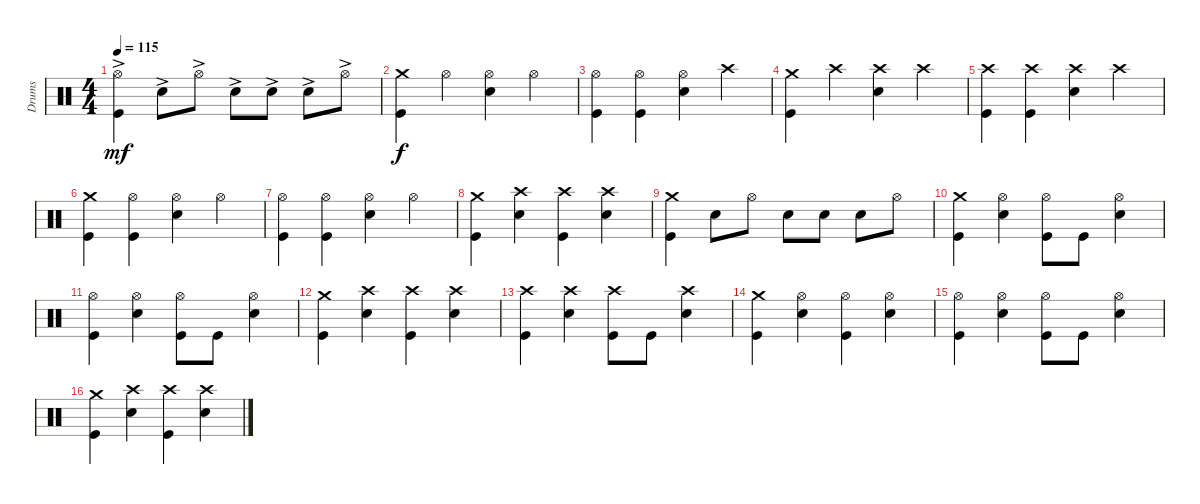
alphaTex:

\track ("Drums" "Drums") {instrument percussion}
\staff {score}
\articulation defaults
\ts (4 4)
\tempo 115
\clef neutral
\ks c
("Hi-Hat (open)"{ac} "Kick (hit)"{ac}).4{dy mf} "Snare (hit) 2"{ac}.8 "Hi-Hat (open)"{ac}.8 "Snare (hit) 2"{ac}.8 "Snare (hit) 2"{ac}.8 "Snare (hit) 2"{ac}.8 "Hi-Hat (open)"{ac}.8 |
("Crash medium (hit)" "Kick (hit)").4{dy f} "Hi-Hat (open)".4 ("Hi-Hat (open)" "Snare (hit) 2").4 "Hi-Hat (open)".4 |
("Hi-Hat (open)" "Kick (hit)").4 ("Hi-Hat (open)" "Kick (hit)").4 ("Hi-Hat (open)" "Snare (hit) 2").4 "Crash high (hit)".4 |
("Crash medium (hit)" "Kick (hit)").4 "Crash high (hit)".4 ("Crash high (hit)" "Snare (hit) 2").4 "Crash high (hit)".4 |
("Crash high (hit)" "Kick (hit)").4 ("Crash high (hit)" "Kick (hit)").4 ("Crash high (hit)" "Snare (hit) 2").4 "Crash high (hit)".4 |
("Crash medium (hit)" "Kick (hit)").4 ("Hi-Hat (open)" "Kick (hit)").4 ("Hi-Hat (open)" "Snare (hit) 2").4 "Hi-Hat (open)".4 |
("Hi-Hat (open)" "Kick (hit)").4 ("Hi-Hat (open)" "Kick (hit)").4 ("Hi-Hat (open)" "Snare (hit) 2").4 "Hi-Hat (open)".4 |
("Crash medium (hit)" "Kick (hit)").4 ("Crash high (hit)" "Snare (hit) 2").4 ("Crash high (hit)" "Kick (hit)").4 ("Crash high (hit)" "Snare (hit) 2").4 |
("Crash medium (hit)" "Kick (hit)").4 "Snare (hit) 2".8 "Hi-Hat (open)".8 "Snare (hit) 2".8 "Snare (hit) 2".8 "Snare (hit) 2".8 "Hi-Hat (open)".8 |
("Crash medium (hit)" "Kick (hit)").4 ("Hi-Hat (open)" "Snare (hit) 2").4 ("Hi-Hat (open)" "Kick (hit)").8 "Kick (hit)".8 ("Hi-Hat (open)" "Snare (hit) 2").4 |
("Hi-Hat (open)" "Kick (hit)").4 ("Hi-Hat (open)" "Snare (hit) 2").4 ("Hi-Hat (open)" "Kick (hit)").8 "Kick (hit)".8 ("Hi-Hat (open)" "Snare (hit) 2").4 |
("Crash medium (hit)" "Kick (hit)").4 ("Crash high (hit)" "Snare (hit) 2").4 ("Crash high (hit)" "Kick (hit)").4 ("Crash high (hit)" "Snare (hit) 2").4 |
("Crash high (hit)" "Kick (hit)").4 ("Crash high (hit)" "Snare (hit) 2").4 ("Crash high (hit)" "Kick (hit)").8 "Kick (hit)".8 ("Crash high (hit)" "Snare (hit) 2").4 |
("Crash medium (hit)" "Kick (hit)").4 ("Hi-Hat (open)" "Snare (hit) 2").4 ("Hi-Hat (open)" "Kick (hit)").4 ("Hi-Hat (open)" "Snare (hit) 2").4 |
("Hi-Hat (open)" "Kick (hit)").4 ("Hi-Hat (open)" "Snare (hit) 2").4 ("Hi-Hat (open)" "Kick (hit)").8 "Kick (hit)".8 ("Hi-Hat (open)" "Snare (hit) 2").4 |
("Crash medium (hit)" "Kick (hit)").4 ("Crash high (hit)" "Snare (hit) 2").4 ("Crash high (hit)" "Kick (hit)").4 ("Crash high (hit)" "Snare (hit) 2").4
